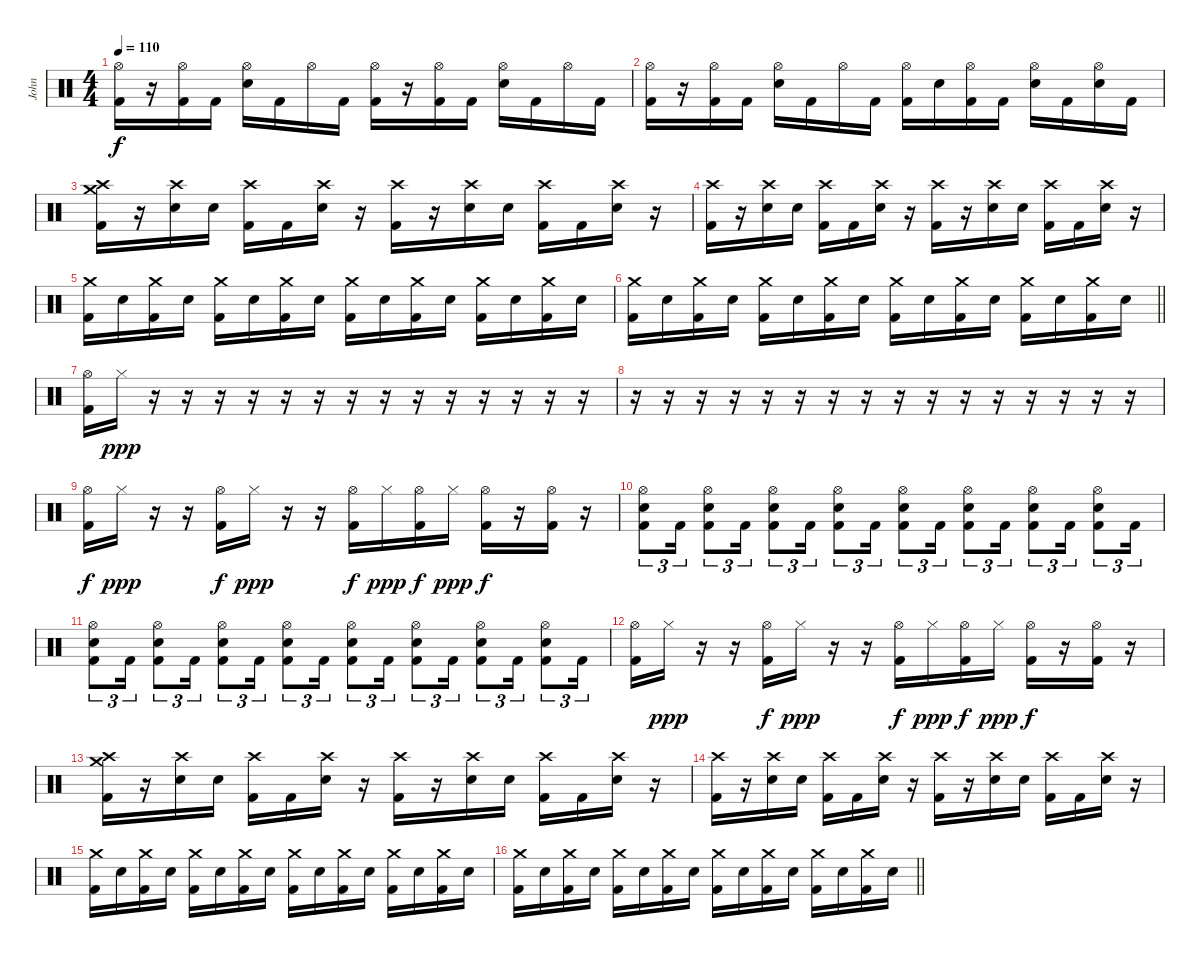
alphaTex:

\track ("John" "John") {instrument percussion}
\staff {score}
\articulation defaults
\ts (4 4)
\tempo 110
\clef neutral
\ks c
("Hi-Hat (open)" "Kick (hit) 2").16{dy f} r.16 ("Hi-Hat (open)" "Kick (hit) 2").16 "Kick (hit) 2".16 ("Hi-Hat (open)" "Electric Snare (hit)").16 "Kick (hit) 2".16 "Hi-Hat (open)".16 "Kick (hit) 2".16 ("Hi-Hat (open)" "Kick (hit) 2").16 r.16 ("Hi-Hat (open)" "Kick (hit) 2").16 "Kick (hit) 2".16 ("Hi-Hat (open)" "Electric Snare (hit)").16 "Kick (hit) 2".16 "Hi-Hat (open)".16 "Kick (hit) 2".16 |
("Hi-Hat (open)" "Kick (hit) 2").16 r.16 ("Hi-Hat (open)" "Kick (hit) 2").16 "Kick (hit) 2".16 ("Hi-Hat (open)" "Electric Snare (hit)").16 "Kick (hit) 2".16 "Hi-Hat (open)".16 "Kick (hit) 2".16 ("Hi-Hat (open)" "Kick (hit) 2").16 "Electric Snare (hit)".16 ("Hi-Hat (open)" "Kick (hit) 2").16 "Kick (hit) 2".16 ("Hi-Hat (open)" "Electric Snare (hit)").16 "Kick (hit) 2".16 ("Hi-Hat (open)" "Electric Snare (hit)").16 "Kick (hit) 2".16 |
("Crash medium (hit)" "Crash high (hit)" "Kick (hit) 2").16 r.16 ("Crash high (hit)" "Electric Snare (hit)").16 "Electric Snare (hit)".16 ("Crash high (hit)" "Kick (hit) 2").16 "Kick (hit) 2".16 ("Crash high (hit)" "Electric Snare (hit)").16 r.16 ("Crash high (hit)" "Kick (hit) 2").16 r.16 ("Crash high (hit)" "Electric Snare (hit)").16 "Electric Snare (hit)".16 ("Crash high (hit)" "Kick (hit) 2").16 "Kick (hit) 2".16 ("Crash high (hit)" "Electric Snare (hit)").16 r.16 |
("Crash high (hit)" "Kick (hit) 2").16 r.16 ("Crash high (hit)" "Electric Snare (hit)").16 "Electric Snare (hit)".16 ("Crash high (hit)" "Kick (hit) 2").16 "Kick (hit) 2".16 ("Crash high (hit)" "Electric Snare (hit)").16 r.16 ("Crash high (hit)" "Kick (hit) 2").16 r.16 ("Crash high (hit)" "Electric Snare (hit)").16 "Electric Snare (hit)".16 ("Crash high (hit)" "Kick (hit) 2").16 "Kick (hit) 2".16 ("Crash high (hit)" "Electric Snare (hit)").16 r.16 |
("Crash medium (hit)" "Kick (hit) 2").16 "Electric Snare (hit)".16 ("Crash medium (hit)" "Kick (hit) 2").16 "Electric Snare (hit)".16 ("Crash medium (hit)" "Kick (hit) 2").16 "Electric Snare (hit)".16 ("Crash medium (hit)" "Kick (hit) 2").16 "Electric Snare (hit)".16 ("Crash medium (hit)" "Kick (hit) 2").16 "Electric Snare (hit)".16 ("Crash medium (hit)" "Kick (hit) 2").16 "Electric Snare (hit)".16 ("Crash medium (hit)" "Kick (hit) 2").16 "Electric Snare (hit)".16 ("Crash medium (hit)" "Kick (hit) 2").16 "Electric Snare (hit)".16 |
\barLineRight lightlight
("Crash medium (hit)" "Kick (hit) 2").16 "Electric Snare (hit)".16 ("Crash medium (hit)" "Kick (hit) 2").16 "Electric Snare (hit)".16 ("Crash medium (hit)" "Kick (hit) 2").16 "Electric Snare (hit)".16 ("Crash medium (hit)" "Kick (hit) 2").16 "Electric Snare (hit)".16 ("Crash medium (hit)" "Kick (hit) 2").16 "Electric Snare (hit)".16 ("Crash medium (hit)" "Kick (hit) 2").16 "Electric Snare (hit)".16 ("Crash medium (hit)" "Kick (hit) 2").16 "Electric Snare (hit)".16 ("Crash medium (hit)" "Kick (hit) 2").16 "Electric Snare (hit)".16 |
("Hi-Hat (open)" "Kick (hit) 2").16 "Hi-Hat (closed)".16{dy ppp} r.16 r.16 r.16 r.16 r.16 r.16 r.16 r.16 r.16 r.16 r.16 r.16 r.16 r.16 |
r.16 r.16 r.16 r.16 r.16 r.16 r.16 r.16 r.16 r.16 r.16 r.16 r.16 r.16 r.16 r.16 |
("Hi-Hat (open)" "Kick (hit) 2").16{dy f} "Hi-Hat (closed)".16{dy ppp} r.16 r.16 ("Hi-Hat (open)" "Kick (hit) 2").16{dy f} "Hi-Hat (closed)".16{dy ppp} r.16 r.16 ("Hi-Hat (open)" "Kick (hit) 2").16{dy f} "Hi-Hat (closed)".16{dy ppp} ("Hi-Hat (open)" "Kick (hit) 2").16{dy f} "Hi-Hat (closed)".16{dy ppp} ("Hi-Hat (open)" "Kick (hit) 2").16{dy f} r.16 ("Hi-Hat (open)" "Kick (hit) 2").16 r.16 |
("Hi-Hat (open)" "Electric Snare (hit)" "Kick (hit) 2").8{tu (3 2)} "Kick (hit) 2".16{tu (3 2)} ("Hi-Hat (open)" "Electric Snare (hit)" "Kick (hit) 2").8{tu (3 2)} "Kick (hit) 2".16{tu (3 2)} ("Hi-Hat (open)" "Electric Snare (hit)" "Kick (hit) 2").8{tu (3 2)} "Kick (hit) 2".16{tu (3 2)} ("Hi-Hat (open)" "Electric Snare (hit)" "Kick (hit) 2").8{tu (3 2)} "Kick (hit) 2".16{tu (3 2)} ("Hi-Hat (open)" "Electric Snare (hit)" "Kick (hit) 2").8{tu (3 2)} "Kick (hit) 2".16{tu (3 2)} ("Hi-Hat (open)" "Electric Snare (hit)" "Kick (hit) 2").8{tu (3 2)} "Kick (hit) 2".16{tu (3 2)} ("Hi-Hat (open)" "Electric Snare (hit)" "Kick (hit) 2").8{tu (3 2)} "Kick (hit) 2".16{tu (3 2)} ("Hi-Hat (open)" "Electric Snare (hit)" "Kick (hit) 2").8{tu (3 2)} "Kick (hit) 2".16{tu (3 2)} |
("Hi-Hat (open)" "Electric Snare (hit)" "Kick (hit) 2").8{tu (3 2)} "Kick (hit) 2".16{tu (3 2)} ("Hi-Hat (open)" "Electric Snare (hit)" "Kick (hit) 2").8{tu (3 2)} "Kick (hit) 2".16{tu (3 2)} ("Hi-Hat (open)" "Electric Snare (hit)" "Kick (hit) 2").8{tu (3 2)} "Kick (hit) 2".16{tu (3 2)} ("Hi-Hat (open)" "Electric Snare (hit)" "Kick (hit) 2").8{tu (3 2)} "Kick (hit) 2".16{tu (3 2)} ("Hi-Hat (open)" "Electric Snare (hit)" "Kick (hit) 2").8{tu (3 2)} "Kick (hit) 2".16{tu (3 2)} ("Hi-Hat (open)" "Electric Snare (hit)" "Kick (hit) 2").8{tu (3 2)} "Kick (hit) 2".16{tu (3 2)} ("Hi-Hat (open)" "Electric Snare (hit)" "Kick (hit) 2").8{tu (3 2)} "Kick (hit) 2".16{tu (3 2)} ("Hi-Hat (open)" "Electric Snare (hit)" "Kick (hit) 2").8{tu (3 2)} "Kick (hit) 2".16{tu (3 2)} |
("Hi-Hat (open)" "Kick (hit) 2").16 "Hi-Hat (closed)".16{dy ppp} r.16 r.16 ("Hi-Hat (open)" "Kick (hit) 2").16{dy f} "Hi-Hat (closed)".16{dy ppp} r.16 r.16 ("Hi-Hat (open)" "Kick (hit) 2").16{dy f} "Hi-Hat (closed)".16{dy ppp} ("Hi-Hat (open)" "Kick (hit) 2").16{dy f} "Hi-Hat (closed)".16{dy ppp} ("Hi-Hat (open)" "Kick (hit) 2").16{dy f} r.16 ("Hi-Hat (open)" "Kick (hit) 2").16 r.16 |
("Crash medium (hit)" "Crash high (hit)" "Kick (hit) 2").16 r.16 ("Crash high (hit)" "Electric Snare (hit)").16 "Electric Snare (hit)".16 ("Crash high (hit)" "Kick (hit) 2").16 "Kick (hit) 2".16 ("Crash high (hit)" "Electric Snare (hit)").16 r.16 ("Crash high (hit)" "Kick (hit) 2").16 r.16 ("Crash high (hit)" "Electric Snare (hit)").16 "Electric Snare (hit)".16 ("Crash high (hit)" "Kick (hit) 2").16 "Kick (hit) 2".16 ("Crash high (hit)" "Electric Snare (hit)").16 r.16 |
("Crash high (hit)" "Kick (hit) 2").16 r.16 ("Crash high (hit)" "Electric Snare (hit)").16 "Electric Snare (hit)".16 ("Crash high (hit)" "Kick (hit) 2").16 "Kick (hit) 2".16 ("Crash high (hit)" "Electric Snare (hit)").16 r.16 ("Crash high (hit)" "Kick (hit) 2").16 r.16 ("Crash high (hit)" "Electric Snare (hit)").16 "Electric Snare (hit)".16 ("Crash high (hit)" "Kick (hit) 2").16 "Kick (hit) 2".16 ("Crash high (hit)" "Electric Snare (hit)").16 r.16 |
("Crash medium (hit)" "Kick (hit) 2").16 "Electric Snare (hit)".16 ("Crash medium (hit)" "Kick (hit) 2").16 "Electric Snare (hit)".16 ("Crash medium (hit)" "Kick (hit) 2").16 "Electric Snare (hit)".16 ("Crash medium (hit)" "Kick (hit) 2").16 "Electric Snare (hit)".16 ("Crash medium (hit)" "Kick (hit) 2").16 "Electric Snare (hit)".16 ("Crash medium (hit)" "Kick (hit) 2").16 "Electric Snare (hit)".16 ("Crash medium (hit)" "Kick (hit) 2").16 "Electric Snare (hit)".16 ("Crash medium (hit)" "Kick (hit) 2").16 "Electric Snare (hit)".16 |
\barLineRight lightlight
("Crash medium (hit)" "Kick (hit) 2").16 "Electric Snare (hit)".16 ("Crash medium (hit)" "Kick (hit) 2").16 "Electric Snare (hit)".16 ("Crash medium (hit)" "Kick (hit) 2").16 "Electric Snare (hit)".16 ("Crash medium (hit)" "Kick (hit) 2").16 "Electric Snare (hit)".16 ("Crash medium (hit)" "Kick (hit) 2").16 "Electric Snare (hit)".16 ("Crash medium (hit)" "Kick (hit) 2").16 "Electric Snare (hit)".16 ("Crash medium (hit)" "Kick (hit) 2").16 "Electric Snare (hit)".16 ("Crash medium (hit)" "Kick (hit) 2").16 "Electric Snare (hit)".16
